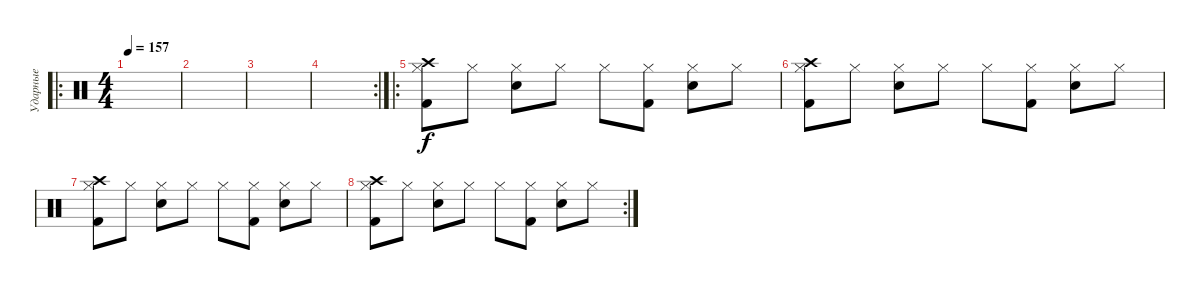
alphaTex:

\track ("Ударные" "Ударные") {instrument percussion}
\staff {score}
\articulation defaults
\ro
\ts (4 4)
\tempo 157
\clef neutral
\ks c
|
|
|
\rc 2
|
\ro
("Hi-Hat (closed)" "Kick (hit) 2" "Crash high (hit)").8 "Hi-Hat (closed)".8 ("Hi-Hat (closed)" "Electric Snare (hit)").8 "Hi-Hat (closed)".8 "Hi-Hat (closed)".8 ("Hi-Hat (closed)" "Kick (hit) 2").8 ("Hi-Hat (closed)" "Electric Snare (hit)").8 "Hi-Hat (closed)".8 |
("Hi-Hat (closed)" "Kick (hit) 2" "Crash high (hit)").8 "Hi-Hat (closed)".8 ("Hi-Hat (closed)" "Electric Snare (hit)").8 "Hi-Hat (closed)".8 "Hi-Hat (closed)".8 ("Hi-Hat (closed)" "Kick (hit) 2").8 ("Hi-Hat (closed)" "Electric Snare (hit)").8 "Hi-Hat (closed)".8 |
("Hi-Hat (closed)" "Kick (hit) 2" "Crash high (hit)").8 "Hi-Hat (closed)".8 ("Hi-Hat (closed)" "Electric Snare (hit)").8 "Hi-Hat (closed)".8 "Hi-Hat (closed)".8 ("Hi-Hat (closed)" "Kick (hit) 2").8 ("Hi-Hat (closed)" "Electric Snare (hit)").8 "Hi-Hat (closed)".8 |
\rc 2
("Hi-Hat (closed)" "Kick (hit) 2" "Crash high (hit)").8 "Hi-Hat (closed)".8 ("Hi-Hat (closed)" "Electric Snare (hit)").8 "Hi-Hat (closed)".8 "Hi-Hat (closed)".8 ("Hi-Hat (closed)" "Kick (hit) 2").8 ("Hi-Hat (closed)" "Electric Snare (hit)").8 "Hi-Hat (closed)".8
